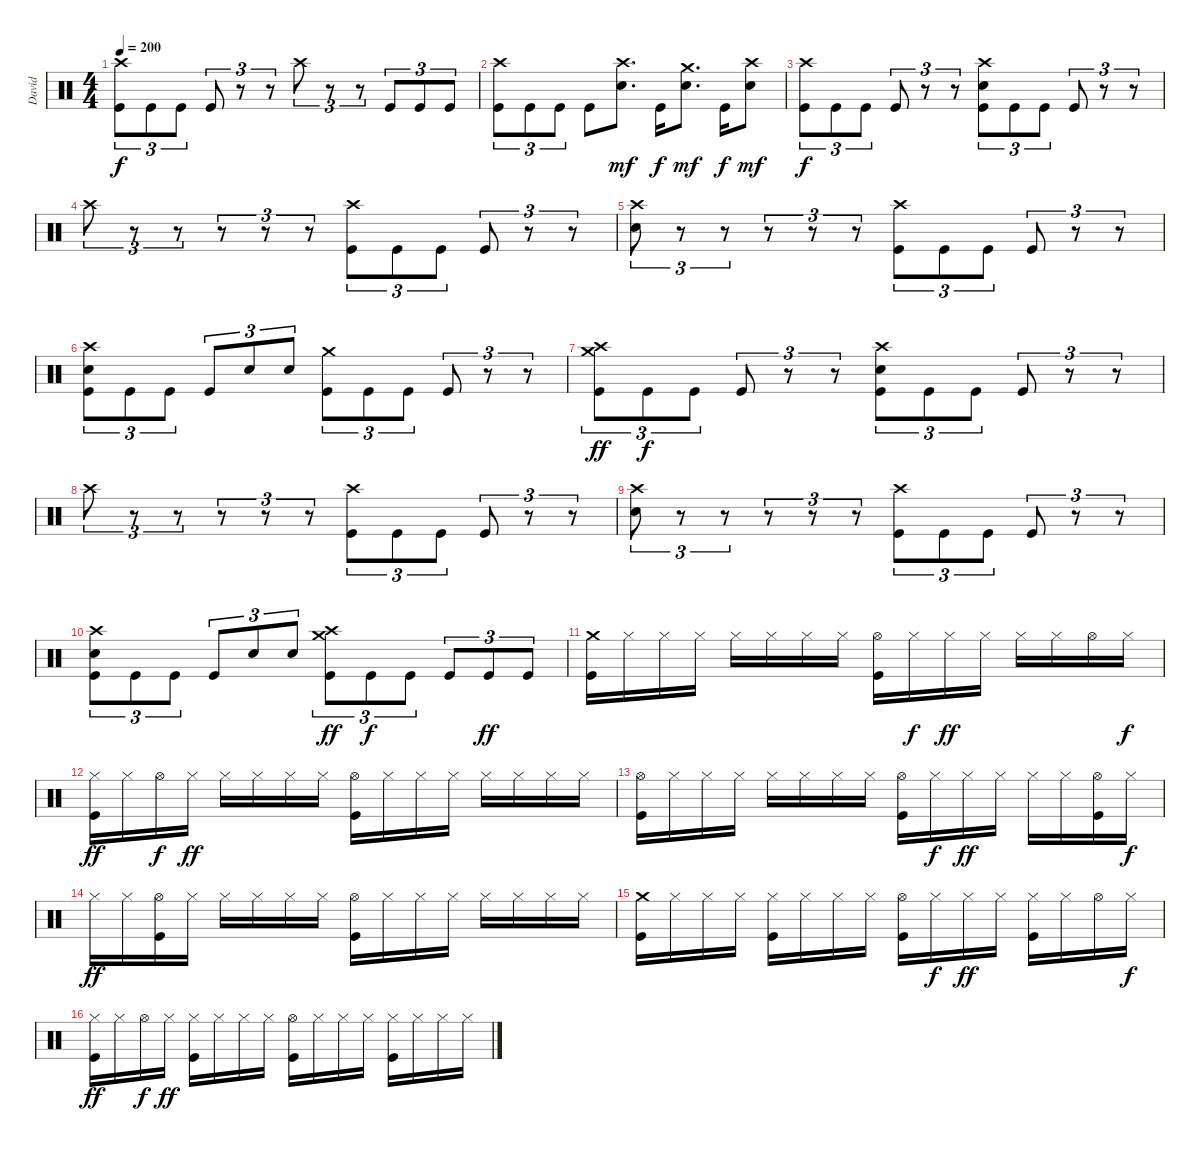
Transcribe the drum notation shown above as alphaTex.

\track ("David" "David") {instrument percussion}
\staff {score}
\articulation defaults
\ts (4 4)
\tempo 200
\clef neutral
\ks c
("Crash high (hit)" "Kick (hit)").8{tu (3 2) dy f} "Kick (hit)".8{tu (3 2)} "Kick (hit)".8{tu (3 2)} "Kick (hit)".8{tu (3 2)} r.8{tu (3 2)} r.8{tu (3 2)} "Crash high (hit)".8{tu (3 2)} r.8{tu (3 2)} r.8{tu (3 2)} "Kick (hit)".8{tu (3 2)} "Kick (hit)".8{tu (3 2)} "Kick (hit)".8{tu (3 2)} |
("Crash high (hit)" "Kick (hit)").8{tu (3 2)} "Kick (hit)".8{tu (3 2)} "Kick (hit)".8{tu (3 2)} "Kick (hit)".8 ("Crash high (hit)" "Electric Snare (hit)").8{d dy mf} "Kick (hit)".16{dy f} ("Crash medium (hit)" "Electric Snare (hit)").8{d dy mf} "Kick (hit)".16{dy f} ("Crash high (hit)" "Electric Snare (hit)").8{dy mf} |
("Crash high (hit)" "Kick (hit)").8{tu (3 2) dy f} "Kick (hit)".8{tu (3 2)} "Kick (hit)".8{tu (3 2)} "Kick (hit)".8{tu (3 2)} r.8{tu (3 2)} r.8{tu (3 2)} ("Crash high (hit)" "Electric Snare (hit)" "Kick (hit)").8{tu (3 2)} "Kick (hit)".8{tu (3 2)} "Kick (hit)".8{tu (3 2)} "Kick (hit)".8{tu (3 2)} r.8{tu (3 2)} r.8{tu (3 2)} |
"Crash high (hit)".8{tu (3 2)} r.8{tu (3 2)} r.8{tu (3 2)} r.8{tu (3 2)} r.8{tu (3 2)} r.8{tu (3 2)} ("Crash high (hit)" "Kick (hit)").8{tu (3 2)} "Kick (hit)".8{tu (3 2)} "Kick (hit)".8{tu (3 2)} "Kick (hit)".8{tu (3 2)} r.8{tu (3 2)} r.8{tu (3 2)} |
("Crash high (hit)" "Electric Snare (hit)").8{tu (3 2)} r.8{tu (3 2)} r.8{tu (3 2)} r.8{tu (3 2)} r.8{tu (3 2)} r.8{tu (3 2)} ("Crash high (hit)" "Kick (hit)").8{tu (3 2)} "Kick (hit)".8{tu (3 2)} "Kick (hit)".8{tu (3 2)} "Kick (hit)".8{tu (3 2)} r.8{tu (3 2)} r.8{tu (3 2)} |
("Crash high (hit)" "Electric Snare (hit)" "Kick (hit)").8{tu (3 2)} "Kick (hit)".8{tu (3 2)} "Kick (hit)".8{tu (3 2)} "Kick (hit)".8{tu (3 2)} "Electric Snare (hit)".8{tu (3 2)} "Electric Snare (hit)".8{tu (3 2)} ("Crash medium (hit)" "Kick (hit)").8{tu (3 2)} "Kick (hit)".8{tu (3 2)} "Kick (hit)".8{tu (3 2)} "Kick (hit)".8{tu (3 2)} r.8{tu (3 2)} r.8{tu (3 2)} |
("Crash high (hit)" "Crash medium (hit)" "Kick (hit)").8{tu (3 2) dy ff} "Kick (hit)".8{tu (3 2) dy f} "Kick (hit)".8{tu (3 2)} "Kick (hit)".8{tu (3 2)} r.8{tu (3 2)} r.8{tu (3 2)} ("Crash high (hit)" "Electric Snare (hit)" "Kick (hit)").8{tu (3 2)} "Kick (hit)".8{tu (3 2)} "Kick (hit)".8{tu (3 2)} "Kick (hit)".8{tu (3 2)} r.8{tu (3 2)} r.8{tu (3 2)} |
"Crash high (hit)".8{tu (3 2)} r.8{tu (3 2)} r.8{tu (3 2)} r.8{tu (3 2)} r.8{tu (3 2)} r.8{tu (3 2)} ("Crash high (hit)" "Kick (hit)").8{tu (3 2)} "Kick (hit)".8{tu (3 2)} "Kick (hit)".8{tu (3 2)} "Kick (hit)".8{tu (3 2)} r.8{tu (3 2)} r.8{tu (3 2)} |
("Crash high (hit)" "Electric Snare (hit)").8{tu (3 2)} r.8{tu (3 2)} r.8{tu (3 2)} r.8{tu (3 2)} r.8{tu (3 2)} r.8{tu (3 2)} ("Crash high (hit)" "Kick (hit)").8{tu (3 2)} "Kick (hit)".8{tu (3 2)} "Kick (hit)".8{tu (3 2)} "Kick (hit)".8{tu (3 2)} r.8{tu (3 2)} r.8{tu (3 2)} |
("Crash high (hit)" "Electric Snare (hit)" "Kick (hit)").8{tu (3 2)} "Kick (hit)".8{tu (3 2)} "Kick (hit)".8{tu (3 2)} "Kick (hit)".8{tu (3 2)} "Electric Snare (hit)".8{tu (3 2)} "Electric Snare (hit)".8{tu (3 2)} ("Crash medium (hit)" "Crash high (hit)" "Kick (hit)").8{tu (3 2) dy ff} "Kick (hit)".8{tu (3 2) dy f} "Kick (hit)".8{tu (3 2)} "Kick (hit)".8{tu (3 2)} "Kick (hit)".8{tu (3 2) dy ff} "Kick (hit)".8{tu (3 2)} |
("Crash medium (hit)" "Kick (hit)").16 "Hi-Hat (closed)".16 "Hi-Hat (closed)".16 "Hi-Hat (closed)".16 "Hi-Hat (closed)".16 "Hi-Hat (closed)".16 "Hi-Hat (closed)".16 "Hi-Hat (closed)".16 ("Hi-Hat (open)" "Kick (hit)").16 "Hi-Hat (closed)".16{dy f} "Hi-Hat (closed)".16{dy ff} "Hi-Hat (closed)".16 "Hi-Hat (closed)".16 "Hi-Hat (closed)".16 "Hi-Hat (open)".16 "Hi-Hat (closed)".16{dy f} |
("Hi-Hat (closed)" "Kick (hit)").16{dy ff} "Hi-Hat (closed)".16 "Hi-Hat (open)".16{dy f} "Hi-Hat (closed)".16{dy ff} "Hi-Hat (closed)".16 "Hi-Hat (closed)".16 "Hi-Hat (closed)".16 "Hi-Hat (closed)".16 ("Hi-Hat (open)" "Kick (hit)").16 "Hi-Hat (closed)".16 "Hi-Hat (closed)".16 "Hi-Hat (closed)".16 "Hi-Hat (closed)".16 "Hi-Hat (closed)".16 "Hi-Hat (closed)".16 "Hi-Hat (closed)".16 |
("Hi-Hat (open)" "Kick (hit)").16 "Hi-Hat (closed)".16 "Hi-Hat (closed)".16 "Hi-Hat (closed)".16 "Hi-Hat (closed)".16 "Hi-Hat (closed)".16 "Hi-Hat (closed)".16 "Hi-Hat (closed)".16 ("Hi-Hat (open)" "Kick (hit)").16 "Hi-Hat (closed)".16{dy f} "Hi-Hat (closed)".16{dy ff} "Hi-Hat (closed)".16 "Hi-Hat (closed)".16 "Hi-Hat (closed)".16 ("Hi-Hat (open)" "Kick (hit)").16 "Hi-Hat (closed)".16{dy f} |
"Hi-Hat (closed)".16{dy ff} "Hi-Hat (closed)".16 ("Hi-Hat (open)" "Kick (hit)").16 "Hi-Hat (closed)".16 "Hi-Hat (closed)".16 "Hi-Hat (closed)".16 "Hi-Hat (closed)".16 "Hi-Hat (closed)".16 ("Hi-Hat (open)" "Kick (hit)").16 "Hi-Hat (closed)".16 "Hi-Hat (closed)".16 "Hi-Hat (closed)".16 "Hi-Hat (closed)".16 "Hi-Hat (closed)".16 "Hi-Hat (closed)".16 "Hi-Hat (closed)".16 |
("Crash medium (hit)" "Kick (hit)").16 "Hi-Hat (closed)".16 "Hi-Hat (closed)".16 "Hi-Hat (closed)".16 ("Hi-Hat (closed)" "Kick (hit)").16 "Hi-Hat (closed)".16 "Hi-Hat (closed)".16 "Hi-Hat (closed)".16 ("Hi-Hat (open)" "Kick (hit)").16 "Hi-Hat (closed)".16{dy f} "Hi-Hat (closed)".16{dy ff} "Hi-Hat (closed)".16 ("Hi-Hat (closed)" "Kick (hit)").16 "Hi-Hat (closed)".16 "Hi-Hat (open)".16 "Hi-Hat (closed)".16{dy f} |
("Hi-Hat (closed)" "Kick (hit)").16{dy ff} "Hi-Hat (closed)".16 "Hi-Hat (open)".16{dy f} "Hi-Hat (closed)".16{dy ff} ("Hi-Hat (closed)" "Kick (hit)").16 "Hi-Hat (closed)".16 "Hi-Hat (closed)".16 "Hi-Hat (closed)".16 ("Hi-Hat (open)" "Kick (hit)").16 "Hi-Hat (closed)".16 "Hi-Hat (closed)".16 "Hi-Hat (closed)".16 ("Hi-Hat (closed)" "Kick (hit)").16 "Hi-Hat (closed)".16 "Hi-Hat (closed)".16 "Hi-Hat (closed)".16
